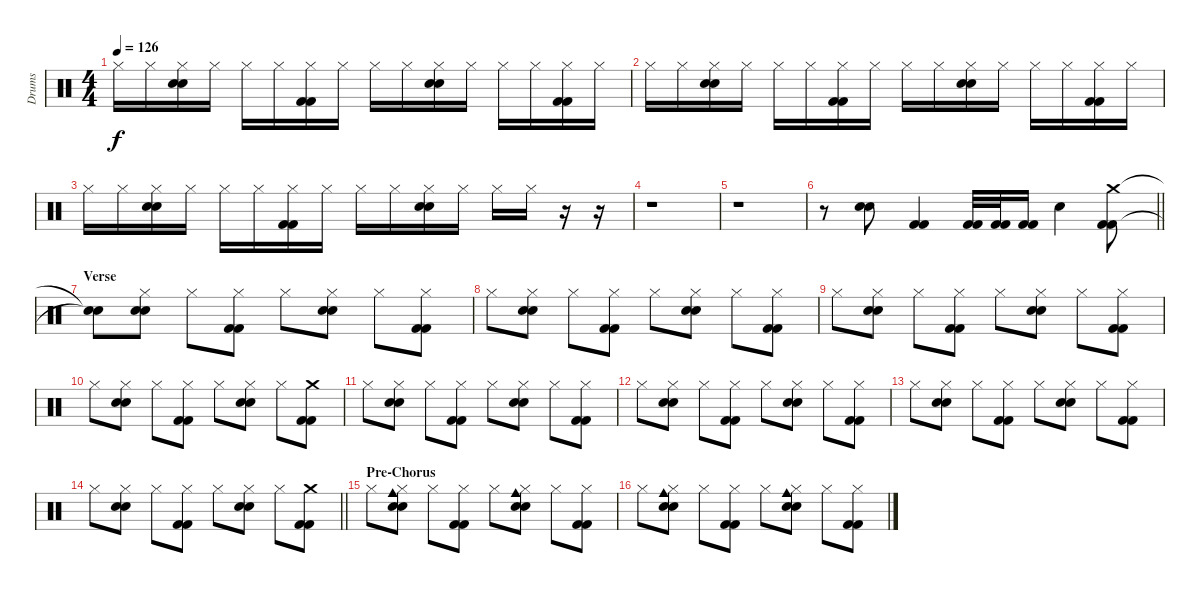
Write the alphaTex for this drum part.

\track ("Drums" "Drums") {instrument percussion}
\staff {score}
\articulation defaults
\ts (4 4)
\tempo 126
\clef neutral
\ks c "Hi-Hat (closed)".16{dy f} "Hi-Hat (closed)".16
("Electric Snare (hit)" "Hi-Hat (closed)" "Electric Snare (hit)").16 "Hi-Hat (closed)".16 "Hi-Hat (closed)".16 "Hi-Hat (closed)".16 ("Kick (hit) 2" "Hi-Hat (closed)" "Kick (hit) 2").16 "Hi-Hat (closed)".16 "Hi-Hat (closed)".16 "Hi-Hat (closed)".16 ("Electric Snare (hit)" "Hi-Hat (closed)" "Electric Snare (hit)").16 "Hi-Hat (closed)".16 "Hi-Hat (closed)".16 "Hi-Hat (closed)".16 ("Kick (hit) 2" "Hi-Hat (closed)" "Kick (hit) 2").16 "Hi-Hat (closed)".16 |
"Hi-Hat (closed)".16 "Hi-Hat (closed)".16 ("Electric Snare (hit)" "Hi-Hat (closed)" "Electric Snare (hit)").16 "Hi-Hat (closed)".16 "Hi-Hat (closed)".16 "Hi-Hat (closed)".16 ("Kick (hit) 2" "Hi-Hat (closed)" "Kick (hit) 2").16 "Hi-Hat (closed)".16 "Hi-Hat (closed)".16 "Hi-Hat (closed)".16 ("Electric Snare (hit)" "Hi-Hat (closed)" "Electric Snare (hit)").16 "Hi-Hat (closed)".16 "Hi-Hat (closed)".16 "Hi-Hat (closed)".16 ("Kick (hit) 2" "Hi-Hat (closed)" "Kick (hit) 2").16 "Hi-Hat (closed)".16 |
"Hi-Hat (closed)".16 "Hi-Hat (closed)".16 ("Electric Snare (hit)" "Hi-Hat (closed)" "Electric Snare (hit)").16 "Hi-Hat (closed)".16 "Hi-Hat (closed)".16 "Hi-Hat (closed)".16 ("Kick (hit) 2" "Hi-Hat (closed)" "Kick (hit) 2").16 "Hi-Hat (closed)".16 "Hi-Hat (closed)".16 "Hi-Hat (closed)".16 ("Electric Snare (hit)" "Hi-Hat (closed)" "Electric Snare (hit)").16 "Hi-Hat (closed)".16 "Hi-Hat (closed)".16 "Hi-Hat (closed)".16 r.16 r.16 |
r.1 |
r.1 |
\barLineRight lightlight
r.8 ("Electric Snare (hit)" "Electric Snare (hit)").8 ("Kick (hit) 2" "Kick (hit) 2").4 ("Kick (hit) 2" "Kick (hit) 2").32 ("Kick (hit) 2" "Kick (hit) 2").32 ("Kick (hit) 2" "Kick (hit) 2").16 "Electric Snare (hit)".4 ("Crash medium (hit)" "Kick (hit) 2" "Kick (hit) 2").8 |
\section ("" "Verse")
("Snare (hit)"{t} "Snare (hit)"{t}).8 ("Electric Snare (hit)" "Hi-Hat (closed)" "Electric Snare (hit)").8 "Hi-Hat (closed)".8 ("Kick (hit) 2" "Hi-Hat (closed)" "Kick (hit) 2").8 "Hi-Hat (closed)".8 ("Electric Snare (hit)" "Hi-Hat (closed)" "Electric Snare (hit)").8 "Hi-Hat (closed)".8 ("Kick (hit) 2" "Hi-Hat (closed)" "Kick (hit) 2").8 |
"Hi-Hat (closed)".8 ("Electric Snare (hit)" "Hi-Hat (closed)" "Electric Snare (hit)").8 "Hi-Hat (closed)".8 ("Kick (hit) 2" "Hi-Hat (closed)" "Kick (hit) 2").8 "Hi-Hat (closed)".8 ("Electric Snare (hit)" "Hi-Hat (closed)" "Electric Snare (hit)").8 "Hi-Hat (closed)".8 ("Kick (hit) 2" "Hi-Hat (closed)" "Kick (hit) 2").8 |
"Hi-Hat (closed)".8 ("Electric Snare (hit)" "Hi-Hat (closed)" "Electric Snare (hit)").8 "Hi-Hat (closed)".8 ("Kick (hit) 2" "Hi-Hat (closed)" "Kick (hit) 2").8 "Hi-Hat (closed)".8 ("Electric Snare (hit)" "Hi-Hat (closed)" "Electric Snare (hit)").8 "Hi-Hat (closed)".8 ("Kick (hit) 2" "Hi-Hat (closed)" "Kick (hit) 2").8 |
"Hi-Hat (closed)".8 ("Electric Snare (hit)" "Hi-Hat (closed)" "Electric Snare (hit)").8 "Hi-Hat (closed)".8 ("Kick (hit) 2" "Hi-Hat (closed)" "Kick (hit) 2").8 "Hi-Hat (closed)".8 ("Electric Snare (hit)" "Hi-Hat (closed)" "Electric Snare (hit)").8 "Hi-Hat (closed)".8 ("Crash medium (hit)" "Kick (hit) 2" "Kick (hit) 2").8 |
"Hi-Hat (closed)".8 ("Electric Snare (hit)" "Hi-Hat (closed)" "Electric Snare (hit)").8 "Hi-Hat (closed)".8 ("Kick (hit) 2" "Hi-Hat (closed)" "Kick (hit) 2").8 "Hi-Hat (closed)".8 ("Electric Snare (hit)" "Hi-Hat (closed)" "Electric Snare (hit)").8 "Hi-Hat (closed)".8 ("Kick (hit) 2" "Hi-Hat (closed)" "Kick (hit) 2").8 |
"Hi-Hat (closed)".8 ("Electric Snare (hit)" "Hi-Hat (closed)" "Electric Snare (hit)").8 "Hi-Hat (closed)".8 ("Kick (hit) 2" "Hi-Hat (closed)" "Kick (hit) 2").8 "Hi-Hat (closed)".8 ("Electric Snare (hit)" "Hi-Hat (closed)" "Electric Snare (hit)").8 "Hi-Hat (closed)".8 ("Kick (hit) 2" "Hi-Hat (closed)" "Kick (hit) 2").8 |
"Hi-Hat (closed)".8 ("Electric Snare (hit)" "Hi-Hat (closed)" "Electric Snare (hit)").8 "Hi-Hat (closed)".8 ("Kick (hit) 2" "Hi-Hat (closed)" "Kick (hit) 2").8 "Hi-Hat (closed)".8 ("Electric Snare (hit)" "Hi-Hat (closed)" "Electric Snare (hit)").8 "Hi-Hat (closed)".8 ("Kick (hit) 2" "Hi-Hat (closed)" "Kick (hit) 2").8 |
\barLineRight lightlight "Hi-Hat (closed)".8
("Electric Snare (hit)" "Hi-Hat (closed)" "Electric Snare (hit)").8 "Hi-Hat (closed)".8 ("Kick (hit) 2" "Hi-Hat (closed)" "Kick (hit) 2").8 "Hi-Hat (closed)".8 ("Electric Snare (hit)" "Hi-Hat (closed)" "Electric Snare (hit)").8 "Hi-Hat (closed)".8 ("Crash medium (hit)" "Kick (hit) 2" "Kick (hit) 2").8 |
\section ("" "Pre-Chorus")
"Hi-Hat (closed)".8 ("Cowbell medium (hit)" "Electric Snare (hit)" "Hi-Hat (closed)" "Electric Snare (hit)").8 "Hi-Hat (closed)".8 ("Kick (hit) 2" "Hi-Hat (closed)" "Kick (hit) 2").8 "Hi-Hat (closed)".8 ("Cowbell medium (hit)" "Electric Snare (hit)" "Hi-Hat (closed)" "Electric Snare (hit)").8 "Hi-Hat (closed)".8 ("Kick (hit) 2" "Hi-Hat (closed)" "Kick (hit) 2").8 |
"Hi-Hat (closed)".8 ("Cowbell medium (hit)" "Electric Snare (hit)" "Hi-Hat (closed)" "Electric Snare (hit)").8 "Hi-Hat (closed)".8 ("Kick (hit) 2" "Hi-Hat (closed)" "Kick (hit) 2").8 "Hi-Hat (closed)".8 ("Cowbell medium (hit)" "Electric Snare (hit)" "Hi-Hat (closed)" "Electric Snare (hit)").8 "Hi-Hat (closed)".8 ("Kick (hit) 2" "Hi-Hat (closed)" "Kick (hit) 2").8
